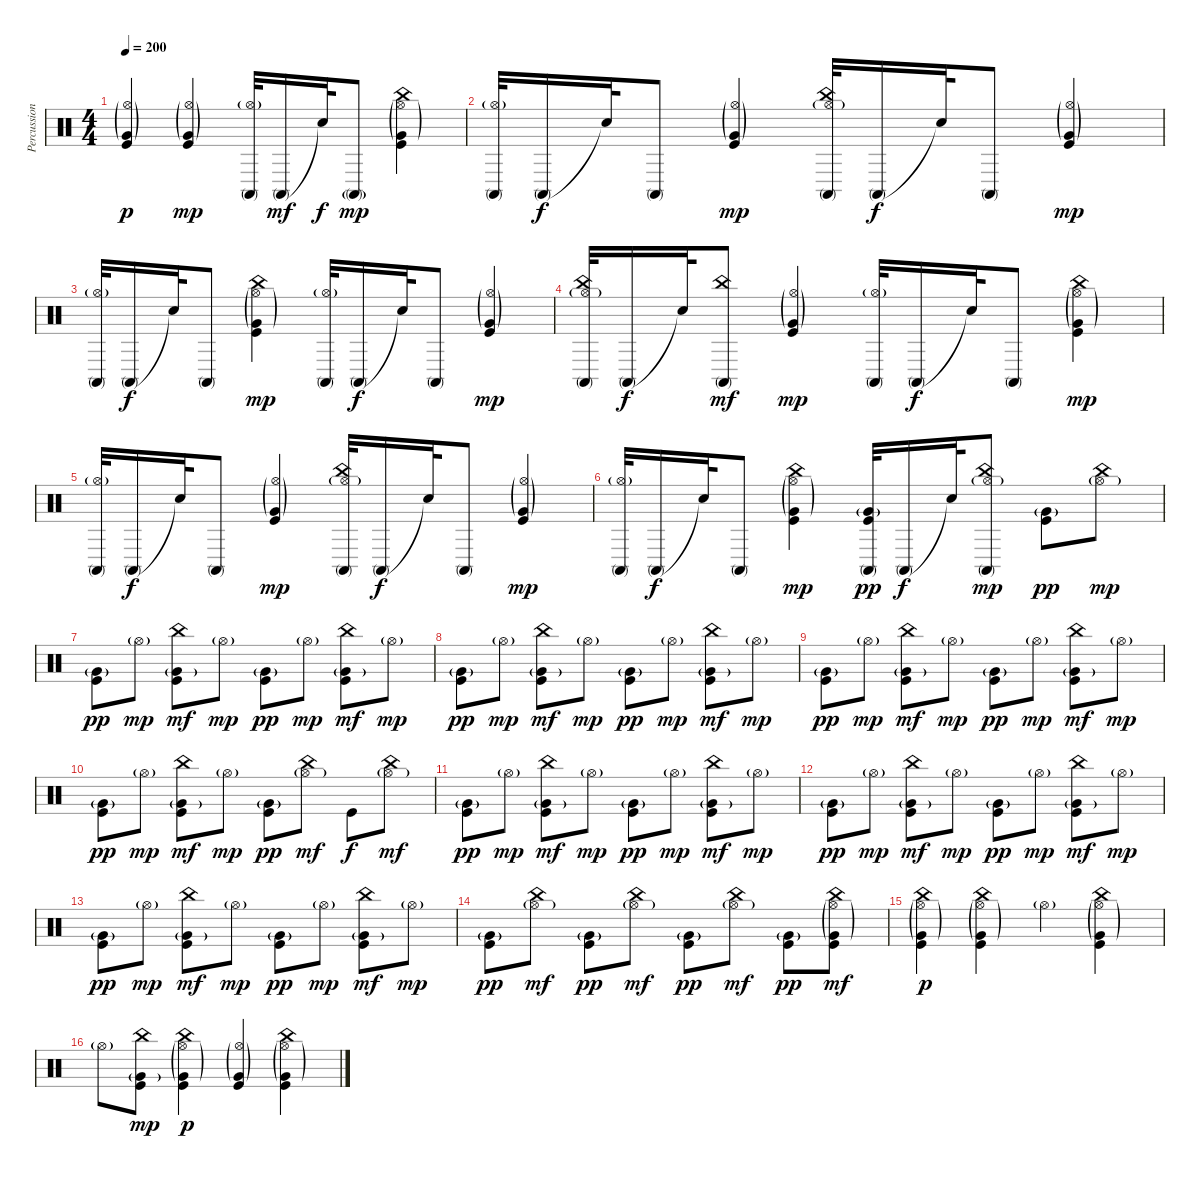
\track ("Percussion" "Percussion") {instrument percussion}
\staff {score}
\articulation defaults
\ts (4 4)
\tempo 200
\clef neutral
\ks c
("Very Low Tom (hit)"{g} "Hi-Hat (open)"{g} "Kick (hit)").4{dy p} ("Very Low Tom (hit)"{g} "Hi-Hat (open)"{g} "Kick (hit)").4{dy mp} ("Conga high (mute)" "Hi-Hat (open)"{g}).32 "Conga high (mute)".16{dy mf} "Snare (hit)"{t}.32{dy f} "Conga high (mute)"{g}.8{dy mp} ("Very Low Tom (hit)"{g} "China (hit)" "Hi-Hat (open)"{g} "Kick (hit)").4 |
("Conga high (mute)" "Hi-Hat (open)"{g}).32 "Conga high (mute)".16{dy f} "Snare (hit)"{t}.32 "Conga high (mute)".8 ("Very Low Tom (hit)"{g} "Hi-Hat (open)"{g} "Kick (hit)").4{dy mp} ("Conga high (mute)" "China (hit)" "Hi-Hat (open)"{g}).32 "Conga high (mute)".16{dy f} "Snare (hit)"{t}.32 "Conga high (mute)".8 ("Very Low Tom (hit)"{g} "Hi-Hat (open)"{g} "Kick (hit)").4{dy mp} |
("Conga high (mute)" "Hi-Hat (open)"{g}).32 "Conga high (mute)".16{dy f} "Snare (hit)"{t}.32 "Conga high (mute)".8 ("Very Low Tom (hit)"{g} "China (hit)" "Hi-Hat (open)"{g} "Kick (hit)").4{dy mp} ("Conga high (mute)" "Hi-Hat (open)"{g}).32 "Conga high (mute)".16{dy f} "Snare (hit)"{t}.32 "Conga high (mute)".8 ("Very Low Tom (hit)"{g} "Hi-Hat (open)"{g} "Kick (hit)").4{dy mp} |
("Conga high (mute)" "China (hit)" "Hi-Hat (open)"{g}).32 "Conga high (mute)".16{dy f} "Snare (hit)"{t}.32 ("Conga high (mute)" "China (hit)").8{dy mf} ("Very Low Tom (hit)"{g} "Hi-Hat (open)"{g} "Kick (hit)").4{dy mp} ("Conga high (mute)" "Hi-Hat (open)"{g}).32 "Conga high (mute)".16{dy f} "Snare (hit)"{t}.32 "Conga high (mute)".8 ("Very Low Tom (hit)"{g} "China (hit)" "Hi-Hat (open)"{g} "Kick (hit)").4{dy mp} |
("Conga high (mute)" "Hi-Hat (open)"{g}).32 "Conga high (mute)".16{dy f} "Snare (hit)"{t}.32 "Conga high (mute)".8 ("Very Low Tom (hit)"{g} "Hi-Hat (open)"{g} "Kick (hit)").4{dy mp} ("Conga high (mute)" "China (hit)" "Hi-Hat (open)"{g}).32 "Conga high (mute)".16{dy f} "Snare (hit)"{t}.32 "Conga high (mute)".8 ("Very Low Tom (hit)"{g} "Hi-Hat (open)"{g} "Kick (hit)").4{dy mp} |
("Conga high (mute)" "Hi-Hat (open)"{g}).32 "Conga high (mute)".16{dy f} "Snare (hit)"{t}.32 "Conga high (mute)".8 ("Very Low Tom (hit)"{g} "China (hit)" "Hi-Hat (open)"{g} "Kick (hit)").4{dy mp} ("Conga high (mute)" "Very Low Tom (hit)"{g} "Kick (hit)").32{dy pp} "Conga high (mute)".16{dy f} "Snare (hit)"{t}.32 ("Conga high (mute)" "China (hit)" "Hi-Hat (open)"{g}).8{dy mp} ("Very Low Tom (hit)"{g} "Kick (hit)").8{dy pp} ("China (hit)" "Hi-Hat (open)"{g}).8{dy mp} |
("Very Low Tom (hit)"{g} "Kick (hit)").8{dy pp} "Hi-Hat (open)"{g}.8{dy mp} ("Very Low Tom (hit)"{g} "China (hit)" "Kick (hit)").8{dy mf} "Hi-Hat (open)"{g}.8{dy mp} ("Very Low Tom (hit)"{g} "Kick (hit)").8{dy pp} "Hi-Hat (open)"{g}.8{dy mp} ("Very Low Tom (hit)"{g} "China (hit)" "Kick (hit)").8{dy mf} "Hi-Hat (open)"{g}.8{dy mp} |
("Very Low Tom (hit)"{g} "Kick (hit)").8{dy pp} "Hi-Hat (open)"{g}.8{dy mp} ("Very Low Tom (hit)"{g} "China (hit)" "Kick (hit)").8{dy mf} "Hi-Hat (open)"{g}.8{dy mp} ("Very Low Tom (hit)"{g} "Kick (hit)").8{dy pp} "Hi-Hat (open)"{g}.8{dy mp} ("Very Low Tom (hit)"{g} "China (hit)" "Kick (hit)").8{dy mf} "Hi-Hat (open)"{g}.8{dy mp} |
("Very Low Tom (hit)"{g} "Kick (hit)").8{dy pp} "Hi-Hat (open)"{g}.8{dy mp} ("Very Low Tom (hit)"{g} "China (hit)" "Kick (hit)").8{dy mf} "Hi-Hat (open)"{g}.8{dy mp} ("Very Low Tom (hit)"{g} "Kick (hit)").8{dy pp} "Hi-Hat (open)"{g}.8{dy mp} ("Very Low Tom (hit)"{g} "China (hit)" "Kick (hit)").8{dy mf} "Hi-Hat (open)"{g}.8{dy mp} |
("Very Low Tom (hit)"{g} "Kick (hit)").8{dy pp} "Hi-Hat (open)"{g}.8{dy mp} ("Very Low Tom (hit)"{g} "China (hit)" "Kick (hit)").8{dy mf} "Hi-Hat (open)"{g}.8{dy mp} ("Very Low Tom (hit)"{g} "Kick (hit)").8{dy pp} ("Hi-Hat (open)"{g} "China (hit)").8{dy mf} "Kick (hit)".8{dy f} ("Hi-Hat (open)"{g} "China (hit)").8{dy mf} |
("Very Low Tom (hit)"{g} "Kick (hit)").8{dy pp} "Hi-Hat (open)"{g}.8{dy mp} ("Very Low Tom (hit)"{g} "China (hit)" "Kick (hit)").8{dy mf} "Hi-Hat (open)"{g}.8{dy mp} ("Very Low Tom (hit)"{g} "Kick (hit)").8{dy pp} "Hi-Hat (open)"{g}.8{dy mp} ("Very Low Tom (hit)"{g} "China (hit)" "Kick (hit)").8{dy mf} "Hi-Hat (open)"{g}.8{dy mp} |
("Very Low Tom (hit)"{g} "Kick (hit)").8{dy pp} "Hi-Hat (open)"{g}.8{dy mp} ("Very Low Tom (hit)"{g} "China (hit)" "Kick (hit)").8{dy mf} "Hi-Hat (open)"{g}.8{dy mp} ("Very Low Tom (hit)"{g} "Kick (hit)").8{dy pp} "Hi-Hat (open)"{g}.8{dy mp} ("Very Low Tom (hit)"{g} "China (hit)" "Kick (hit)").8{dy mf} "Hi-Hat (open)"{g}.8{dy mp} |
("Very Low Tom (hit)"{g} "Kick (hit)").8{dy pp} "Hi-Hat (open)"{g}.8{dy mp} ("Very Low Tom (hit)"{g} "China (hit)" "Kick (hit)").8{dy mf} "Hi-Hat (open)"{g}.8{dy mp} ("Very Low Tom (hit)"{g} "Kick (hit)").8{dy pp} "Hi-Hat (open)"{g}.8{dy mp} ("Very Low Tom (hit)"{g} "China (hit)" "Kick (hit)").8{dy mf} "Hi-Hat (open)"{g}.8{dy mp} |
("Very Low Tom (hit)"{g} "Kick (hit)").8{dy pp} ("Hi-Hat (open)"{g} "China (hit)").8{dy mf} ("Very Low Tom (hit)"{g} "Kick (hit)").8{dy pp} ("Hi-Hat (open)"{g} "China (hit)").8{dy mf} ("Very Low Tom (hit)"{g} "Kick (hit)").8{dy pp} ("Hi-Hat (open)"{g} "China (hit)").8{dy mf} ("Very Low Tom (hit)"{g} "Kick (hit)").8{dy pp} ("Very Low Tom (hit)"{g} "Hi-Hat (open)"{g} "China (hit)" "Kick (hit)").8{dy mf} |
("Very Low Tom (hit)"{g} "China (hit)" "Hi-Hat (open)"{g} "Kick (hit)").4{dy p} ("Very Low Tom (hit)"{g} "China (hit)" "Hi-Hat (open)"{g} "Kick (hit)").4 "Hi-Hat (open)"{g}.4 ("Very Low Tom (hit)"{g} "China (hit)" "Hi-Hat (open)"{g} "Kick (hit)").4 |
"Hi-Hat (open)"{g}.8 ("Very Low Tom (hit)"{g} "China (hit)" "Kick (hit)").8{dy mp} ("Very Low Tom (hit)"{g} "China (hit)" "Hi-Hat (open)"{g} "Kick (hit)").4{dy p} ("Very Low Tom (hit)"{g} "Hi-Hat (open)"{g} "Kick (hit)").4 ("Very Low Tom (hit)"{g} "China (hit)" "Hi-Hat (open)"{g} "Kick (hit)").4
